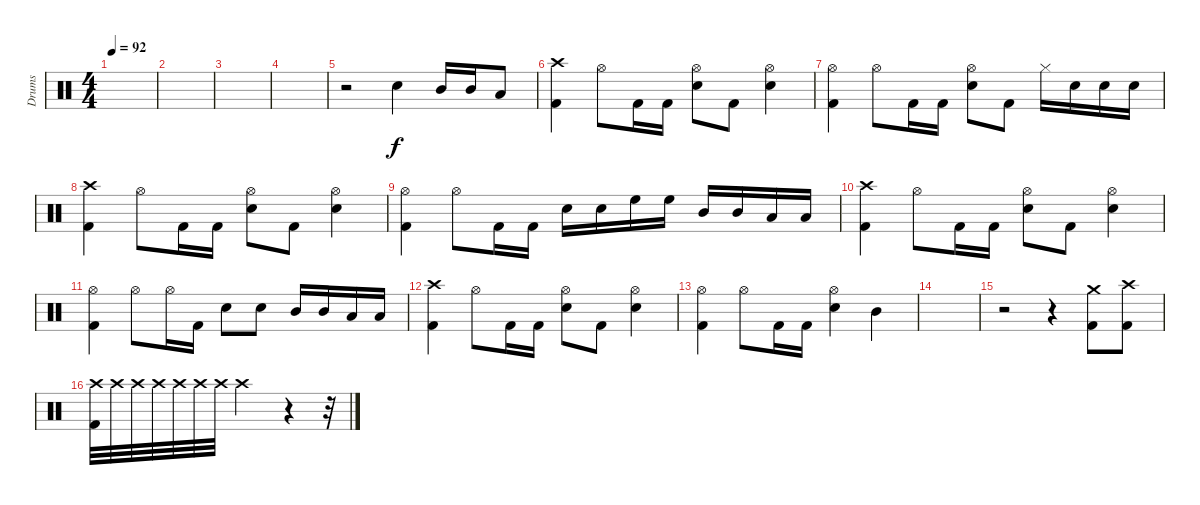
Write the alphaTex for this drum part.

\track ("Drums" "Drums") {instrument percussion}
\staff {score}
\articulation defaults
\ts (4 4)
\tempo 92
\clef neutral
\ks c
|
|
|
|
r.2 "Snare (hit) 2".4 "Mid Tom (hit)".16 "Mid Tom (hit)".16 "Low Tom (hit)".8 |
("Crash high (hit)" "Kick (hit) 2").4 "Hi-Hat (open)".8 "Kick (hit) 2".16 "Kick (hit) 2".16 ("Hi-Hat (open)" "Snare (hit) 2").8 "Kick (hit) 2".8 ("Hi-Hat (open)" "Snare (hit) 2").4 |
("Hi-Hat (open)" "Kick (hit) 2").4 "Hi-Hat (open)".8 "Kick (hit) 2".16 "Kick (hit) 2".16 ("Hi-Hat (open)" "Snare (hit) 2").8 "Kick (hit) 2".8 "Hi-Hat (closed)".16 "Snare (hit) 2".16 "Snare (hit) 2".16 "Snare (hit) 2".16 |
("Crash high (hit)" "Kick (hit) 2").4 "Hi-Hat (open)".8 "Kick (hit) 2".16 "Kick (hit) 2".16 ("Hi-Hat (open)" "Snare (hit) 2").8 "Kick (hit) 2".8 ("Hi-Hat (open)" "Snare (hit) 2").4 |
("Hi-Hat (open)" "Kick (hit) 2").4 "Hi-Hat (open)".8 "Kick (hit) 2".16 "Kick (hit) 2".16 "Snare (hit) 2".16 "Snare (hit) 2".16 "High Floor Tom (hit)".16 "High Floor Tom (hit)".16 "Mid Tom (hit)".16 "Mid Tom (hit)".16 "Low Tom (hit)".16 "Low Tom (hit)".16 |
("Crash high (hit)" "Kick (hit) 2").4 "Hi-Hat (open)".8 "Kick (hit) 2".16 "Kick (hit) 2".16 ("Hi-Hat (open)" "Snare (hit) 2").8 "Kick (hit) 2".8 ("Hi-Hat (open)" "Snare (hit) 2").4 |
("Hi-Hat (open)" "Kick (hit) 2").4 "Hi-Hat (open)".8 "Hi-Hat (open)".16 "Kick (hit) 2".16 "Snare (hit) 2".8 "Snare (hit) 2".8 "Mid Tom (hit)".16 "Mid Tom (hit)".16 "Low Tom (hit)".16 "Low Tom (hit)".16 |
("Crash high (hit)" "Kick (hit) 2").4 "Hi-Hat (open)".8 "Kick (hit) 2".16 "Kick (hit) 2".16 ("Hi-Hat (open)" "Snare (hit) 2").8 "Kick (hit) 2".8 ("Hi-Hat (open)" "Snare (hit) 2").4 |
("Hi-Hat (open)" "Kick (hit) 2").4 "Hi-Hat (open)".8 "Kick (hit) 2".16 "Kick (hit) 2".16 ("Hi-Hat (open)" "Snare (hit) 2").4 "Mid Tom (hit)".4 |
|
r.2 r.4 ("Crash medium (hit)" "Kick (hit) 2").8 ("Crash high (hit)" "Kick (hit) 2").8 |
("Crash high (hit)" "Kick (hit) 2").32 "Crash high (hit)".32 "Crash high (hit)".32 "Crash high (hit)".32 "Crash high (hit)".32 "Crash high (hit)".32 "Crash high (hit)".32 "Crash high (hit)".2 r.4 r.32
